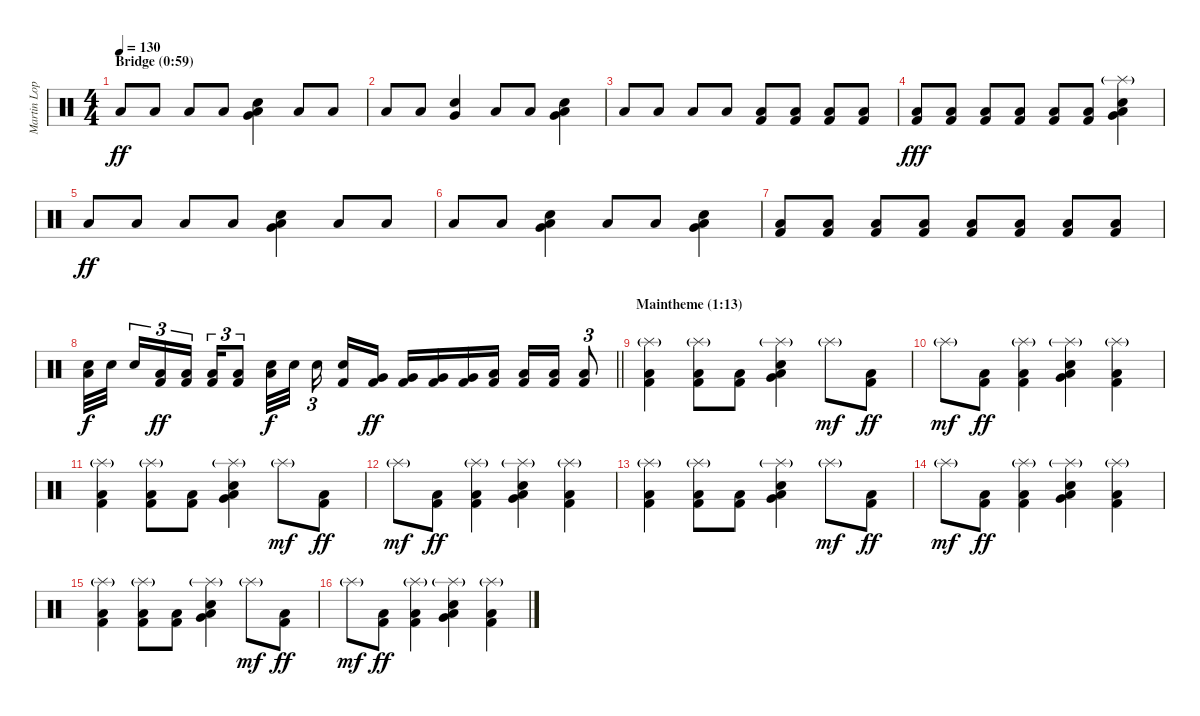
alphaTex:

\track ("Martin Lopez" "Martin Lop") {instrument percussion}
\staff {score}
\articulation defaults
\ts (4 4)
\section ("" "Bridge (0:59)")
\tempo 130
\clef neutral
\ks c "Low Floor Tom (hit)".8{dy ff} "Low Floor Tom (hit)".8 "Low Floor Tom (hit)".8 "Low Floor Tom (hit)".8
("Very Low Tom (hit)" "Snare (hit) 2" "Low Floor Tom (hit)").4 "Low Floor Tom (hit)".8 "Low Floor Tom (hit)".8 |
"Low Floor Tom (hit)".8 "Low Floor Tom (hit)".8 ("Very Low Tom (hit)" "Snare (hit) 2").4 "Low Floor Tom (hit)".8 "Low Floor Tom (hit)".8 ("Very Low Tom (hit)" "Snare (hit) 2" "Low Floor Tom (hit)").4 |
"Low Floor Tom (hit)".8 "Low Floor Tom (hit)".8 "Low Floor Tom (hit)".8 "Low Floor Tom (hit)".8 ("Kick (hit) 2" "Low Floor Tom (hit)").8 ("Kick (hit) 2" "Low Floor Tom (hit)").8 ("Kick (hit) 2" "Low Floor Tom (hit)").8 ("Kick (hit) 2" "Low Floor Tom (hit)").8 |
("Kick (hit) 2" "Low Floor Tom (hit)").8{dy fff} ("Kick (hit) 2" "Low Floor Tom (hit)").8 ("Kick (hit) 2" "Low Floor Tom (hit)").8 ("Kick (hit) 2" "Low Floor Tom (hit)").8 ("Kick (hit) 2" "Low Floor Tom (hit)").8 ("Kick (hit) 2" "Low Floor Tom (hit)").8 ("Splash (hit)"{g} "Very Low Tom (hit)" "Snare (hit) 2" "Low Floor Tom (hit)").4 |
"Low Floor Tom (hit)".8{dy ff} "Low Floor Tom (hit)".8 "Low Floor Tom (hit)".8 "Low Floor Tom (hit)".8 ("Very Low Tom (hit)" "Snare (hit) 2" "Low Floor Tom (hit)").4 "Low Floor Tom (hit)".8 "Low Floor Tom (hit)".8 |
"Low Floor Tom (hit)".8 "Low Floor Tom (hit)".8 ("Very Low Tom (hit)" "Snare (hit) 2" "Low Floor Tom (hit)").4 "Low Floor Tom (hit)".8 "Low Floor Tom (hit)".8 ("Very Low Tom (hit)" "Snare (hit) 2" "Low Floor Tom (hit)").4 |
("Kick (hit) 2" "Low Floor Tom (hit)").8 ("Kick (hit) 2" "Low Floor Tom (hit)").8 ("Kick (hit) 2" "Low Floor Tom (hit)").8 ("Kick (hit) 2" "Low Floor Tom (hit)").8 ("Kick (hit) 2" "Low Floor Tom (hit)").8 ("Kick (hit) 2" "Low Floor Tom (hit)").8 ("Kick (hit) 2" "Low Floor Tom (hit)").8 ("Kick (hit) 2" "Low Floor Tom (hit)").8 |
\barLineRight lightlight
("Electric Snare (hit)" "Low Floor Tom (hit)").32{dy f} "Electric Snare (hit)".32{beam splitsecondary} "Electric Snare (hit)".16{tu (3 2)} ("Kick (hit) 2" "Low Floor Tom (hit)").16{tu (3 2) dy ff} ("Kick (hit) 2" "Low Floor Tom (hit)").16{tu (3 2) beam splitsecondary} ("Kick (hit) 2" "Low Floor Tom (hit)").16{tu (3 2)} ("Kick (hit) 2" "Low Floor Tom (hit)").8{tu (3 2)} ("Electric Snare (hit)" "Low Floor Tom (hit)").32{dy f} "Electric Snare (hit)".32{beam splitsecondary} "Electric Snare (hit)".16{tu (3 2) beam splitsecondary} ("Electric Snare (hit)" "Kick (hit) 2").16 ("Kick (hit) 2" "Very Low Tom (hit)").16{dy ff} ("Kick (hit) 2" "Very Low Tom (hit)").16 ("Kick (hit) 2" "Very Low Tom (hit)").16 ("Kick (hit) 2" "Very Low Tom (hit)").16 ("Low Tom (hit)" "Kick (hit) 2").16 ("Low Tom (hit)" "Kick (hit) 2").16 ("Kick (hit) 2" "Low Floor Tom (hit)").16 ("Kick (hit) 2" "Low Floor Tom (hit)").8{tu (3 2)} |
\section ("" "Maintheme (1:13)")
("Splash (hit)"{g} "Kick (hit) 2" "Low Floor Tom (hit)").4 ("Splash (hit)"{g} "Kick (hit) 2" "Low Floor Tom (hit)").8 ("Kick (hit) 2" "Low Floor Tom (hit)").8 ("Splash (hit)"{g} "Very Low Tom (hit)" "Snare (hit) 2" "Low Floor Tom (hit)").4 "Splash (hit)"{g}.8{dy mf} ("Kick (hit) 2" "Low Floor Tom (hit)").8{dy ff} |
"Splash (hit)"{g}.8{dy mf} ("Kick (hit) 2" "Low Floor Tom (hit)").8{dy ff} ("Splash (hit)"{g} "Kick (hit) 2" "Low Floor Tom (hit)").4 ("Splash (hit)"{g} "Very Low Tom (hit)" "Snare (hit) 2" "Low Floor Tom (hit)").4 ("Splash (hit)"{g} "Kick (hit) 2" "Low Floor Tom (hit)").4 |
("Splash (hit)"{g} "Kick (hit) 2" "Low Floor Tom (hit)").4 ("Splash (hit)"{g} "Kick (hit) 2" "Low Floor Tom (hit)").8 ("Kick (hit) 2" "Low Floor Tom (hit)").8 ("Splash (hit)"{g} "Very Low Tom (hit)" "Snare (hit) 2" "Low Floor Tom (hit)").4 "Splash (hit)"{g}.8{dy mf} ("Kick (hit) 2" "Low Floor Tom (hit)").8{dy ff} |
"Splash (hit)"{g}.8{dy mf} ("Kick (hit) 2" "Low Floor Tom (hit)").8{dy ff} ("Splash (hit)"{g} "Kick (hit) 2" "Low Floor Tom (hit)").4 ("Splash (hit)"{g} "Very Low Tom (hit)" "Snare (hit) 2" "Low Floor Tom (hit)").4 ("Splash (hit)"{g} "Kick (hit) 2" "Low Floor Tom (hit)").4 |
("Splash (hit)"{g} "Kick (hit) 2" "Low Floor Tom (hit)").4 ("Splash (hit)"{g} "Kick (hit) 2" "Low Floor Tom (hit)").8 ("Kick (hit) 2" "Low Floor Tom (hit)").8 ("Splash (hit)"{g} "Very Low Tom (hit)" "Snare (hit) 2" "Low Floor Tom (hit)").4 "Splash (hit)"{g}.8{dy mf} ("Kick (hit) 2" "Low Floor Tom (hit)").8{dy ff} |
"Splash (hit)"{g}.8{dy mf} ("Kick (hit) 2" "Low Floor Tom (hit)").8{dy ff} ("Splash (hit)"{g} "Kick (hit) 2" "Low Floor Tom (hit)").4 ("Splash (hit)"{g} "Very Low Tom (hit)" "Snare (hit) 2" "Low Floor Tom (hit)").4 ("Splash (hit)"{g} "Kick (hit) 2" "Low Floor Tom (hit)").4 |
("Splash (hit)"{g} "Kick (hit) 2" "Low Floor Tom (hit)").4 ("Splash (hit)"{g} "Kick (hit) 2" "Low Floor Tom (hit)").8 ("Kick (hit) 2" "Low Floor Tom (hit)").8 ("Splash (hit)"{g} "Very Low Tom (hit)" "Snare (hit) 2" "Low Floor Tom (hit)").4 "Splash (hit)"{g}.8{dy mf} ("Kick (hit) 2" "Low Floor Tom (hit)").8{dy ff} |
"Splash (hit)"{g}.8{dy mf} ("Kick (hit) 2" "Low Floor Tom (hit)").8{dy ff} ("Splash (hit)"{g} "Kick (hit) 2" "Low Floor Tom (hit)").4 ("Splash (hit)"{g} "Very Low Tom (hit)" "Snare (hit) 2" "Low Floor Tom (hit)").4 ("Splash (hit)"{g} "Kick (hit) 2" "Low Floor Tom (hit)").4
